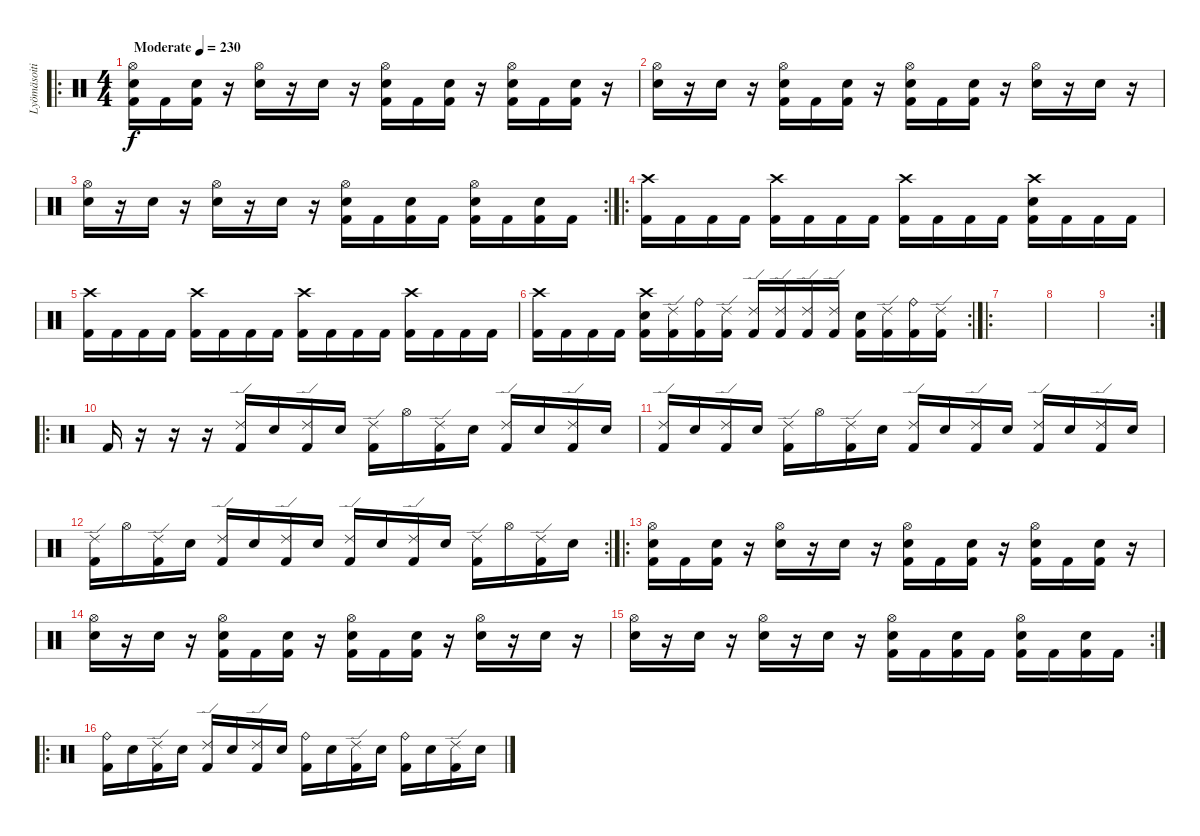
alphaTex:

\track ("Lyömäsoitin" "Lyömäsoiti") {instrument percussion}
\staff {score}
\articulation defaults
\ro
\ts (4 4)
\tempo (230 "Moderate")
\clef neutral
\ks c
("Hi-Hat (open)" "Snare (hit) 2" "Kick (hit) 2").16{dy f} "Kick (hit) 2".16 ("Snare (hit) 2" "Kick (hit) 2").16 r.16 ("Hi-Hat (open)" "Snare (hit) 2").16 r.16 "Snare (hit) 2".16 r.16 ("Hi-Hat (open)" "Snare (hit) 2" "Kick (hit) 2").16 "Kick (hit) 2".16 ("Snare (hit) 2" "Kick (hit) 2").16 r.16 ("Hi-Hat (open)" "Snare (hit) 2" "Kick (hit) 2").16 "Kick (hit) 2".16 ("Snare (hit) 2" "Kick (hit) 2").16 r.16 |
("Hi-Hat (open)" "Snare (hit) 2").16 r.16 "Snare (hit) 2".16 r.16 ("Hi-Hat (open)" "Snare (hit) 2" "Kick (hit) 2").16 "Kick (hit) 2".16 ("Snare (hit) 2" "Kick (hit) 2").16 r.16 ("Hi-Hat (open)" "Snare (hit) 2" "Kick (hit) 2").16 "Kick (hit) 2".16 ("Snare (hit) 2" "Kick (hit) 2").16 r.16 ("Hi-Hat (open)" "Snare (hit) 2").16 r.16 "Snare (hit) 2".16 r.16 |
\rc 2
("Hi-Hat (open)" "Snare (hit) 2").16 r.16 "Snare (hit) 2".16 r.16 ("Hi-Hat (open)" "Snare (hit) 2").16 r.16 "Snare (hit) 2".16 r.16 ("Hi-Hat (open)" "Snare (hit) 2" "Kick (hit) 2").16 "Kick (hit) 2".16 ("Snare (hit) 2" "Kick (hit) 2").16 "Kick (hit) 2".16 ("Hi-Hat (open)" "Snare (hit) 2" "Kick (hit) 2").16 "Kick (hit) 2".16 ("Snare (hit) 2" "Kick (hit) 2").16 "Kick (hit) 2".16 |
\ro
("Crash high (hit)" "Kick (hit) 2").16 "Kick (hit) 2".16 "Kick (hit) 2".16 "Kick (hit) 2".16 ("Crash high (hit)" "Kick (hit) 2").16 "Kick (hit) 2".16 "Kick (hit) 2".16 "Kick (hit) 2".16 ("Crash high (hit)" "Kick (hit) 2").16 "Kick (hit) 2".16 "Kick (hit) 2".16 "Kick (hit) 2".16 ("Crash high (hit)" "Snare (hit) 2" "Kick (hit) 2").16 "Kick (hit) 2".16 "Kick (hit) 2".16 "Kick (hit) 2".16 |
("Crash high (hit)" "Kick (hit) 2").16 "Kick (hit) 2".16 "Kick (hit) 2".16 "Kick (hit) 2".16 ("Crash high (hit)" "Kick (hit) 2").16 "Kick (hit) 2".16 "Kick (hit) 2".16 "Kick (hit) 2".16 ("Crash high (hit)" "Kick (hit) 2").16 "Kick (hit) 2".16 "Kick (hit) 2".16 "Kick (hit) 2".16 ("Crash high (hit)" "Kick (hit) 2").16 "Kick (hit) 2".16 "Kick (hit) 2".16 "Kick (hit) 2".16 |
\rc 2
("Crash high (hit)" "Kick (hit) 2").16 "Kick (hit) 2".16 "Kick (hit) 2".16 "Kick (hit) 2".16 ("Crash high (hit)" "Snare (hit) 2" "Kick (hit) 2").16 ("Ride (edge) 2" "Kick (hit) 2").16 ("Ride (bell)" "Kick (hit) 2").16 ("Ride (edge) 2" "Kick (hit) 2").16 ("Ride (edge) 2" "Kick (hit) 2").16 ("Ride (edge) 2" "Kick (hit) 2").16 ("Ride (edge) 2" "Kick (hit) 2").16 ("Ride (edge) 2" "Kick (hit) 2").16 ("Snare (hit) 2" "Kick (hit) 2").16 ("Ride (edge) 2" "Kick (hit) 2").16 ("Ride (bell)" "Kick (hit) 2").16 ("Ride (edge) 2" "Kick (hit) 2").16 |
\ro
|
|
\rc 2
|
\ro "Kick (hit) 2".16
r.16 r.16 r.16 ("Ride (edge) 2" "Kick (hit) 2").16 "Snare (hit) 2".16 ("Ride (edge) 2" "Kick (hit) 2").16 "Snare (hit) 2".16 ("Ride (edge) 2" "Kick (hit) 2").16 "Hi-Hat (open)".16 ("Ride (edge) 2" "Kick (hit) 2").16 "Snare (hit) 2".16 ("Ride (edge) 2" "Kick (hit) 2").16 "Snare (hit) 2".16 ("Ride (edge) 2" "Kick (hit) 2").16 "Snare (hit) 2".16 |
("Ride (edge) 2" "Kick (hit) 2").16 "Snare (hit) 2".16 ("Ride (edge) 2" "Kick (hit) 2").16 "Snare (hit) 2".16 ("Ride (edge) 2" "Kick (hit) 2").16 "Hi-Hat (open)".16 ("Ride (edge) 2" "Kick (hit) 2").16 "Snare (hit) 2".16 ("Ride (edge) 2" "Kick (hit) 2").16 "Snare (hit) 2".16 ("Ride (edge) 2" "Kick (hit) 2").16 "Snare (hit) 2".16 ("Ride (edge) 2" "Kick (hit) 2").16 "Snare (hit) 2".16 ("Ride (edge) 2" "Kick (hit) 2").16 "Snare (hit) 2".16 |
\rc 2
("Ride (edge) 2" "Kick (hit) 2").16 "Hi-Hat (open)".16 ("Ride (edge) 2" "Kick (hit) 2").16 "Snare (hit) 2".16 ("Ride (edge) 2" "Kick (hit) 2").16 "Snare (hit) 2".16 ("Ride (edge) 2" "Kick (hit) 2").16 "Snare (hit) 2".16 ("Ride (edge) 2" "Kick (hit) 2").16 "Snare (hit) 2".16 ("Ride (edge) 2" "Kick (hit) 2").16 "Snare (hit) 2".16 ("Ride (edge) 2" "Kick (hit) 2").16 "Hi-Hat (open)".16 ("Ride (edge) 2" "Kick (hit) 2").16 "Snare (hit) 2".16 |
\ro
("Hi-Hat (open)" "Snare (hit) 2" "Kick (hit) 2").16 "Kick (hit) 2".16 ("Snare (hit) 2" "Kick (hit) 2").16 r.16 ("Hi-Hat (open)" "Snare (hit) 2").16 r.16 "Snare (hit) 2".16 r.16 ("Hi-Hat (open)" "Snare (hit) 2" "Kick (hit) 2").16 "Kick (hit) 2".16 ("Snare (hit) 2" "Kick (hit) 2").16 r.16 ("Hi-Hat (open)" "Snare (hit) 2" "Kick (hit) 2").16 "Kick (hit) 2".16 ("Snare (hit) 2" "Kick (hit) 2").16 r.16 |
("Hi-Hat (open)" "Snare (hit) 2").16 r.16 "Snare (hit) 2".16 r.16 ("Hi-Hat (open)" "Snare (hit) 2" "Kick (hit) 2").16 "Kick (hit) 2".16 ("Snare (hit) 2" "Kick (hit) 2").16 r.16 ("Hi-Hat (open)" "Snare (hit) 2" "Kick (hit) 2").16 "Kick (hit) 2".16 ("Snare (hit) 2" "Kick (hit) 2").16 r.16 ("Hi-Hat (open)" "Snare (hit) 2").16 r.16 "Snare (hit) 2".16 r.16 |
\rc 2
("Hi-Hat (open)" "Snare (hit) 2").16 r.16 "Snare (hit) 2".16 r.16 ("Hi-Hat (open)" "Snare (hit) 2").16 r.16 "Snare (hit) 2".16 r.16 ("Hi-Hat (open)" "Snare (hit) 2" "Kick (hit) 2").16 "Kick (hit) 2".16 ("Snare (hit) 2" "Kick (hit) 2").16 "Kick (hit) 2".16 ("Hi-Hat (open)" "Snare (hit) 2" "Kick (hit) 2").16 "Kick (hit) 2".16 ("Snare (hit) 2" "Kick (hit) 2").16 "Kick (hit) 2".16 |
\ro
("Ride (bell)" "Kick (hit) 2").16 "Snare (hit) 2".16 ("Ride (edge) 2" "Kick (hit) 2").16 "Snare (hit) 2".16 ("Ride (edge) 2" "Kick (hit) 2").16 "Snare (hit) 2".16 ("Ride (edge) 2" "Kick (hit) 2").16 "Snare (hit) 2".16 ("Ride (bell)" "Kick (hit) 2").16 "Snare (hit) 2".16 ("Ride (edge) 2" "Kick (hit) 2").16 "Snare (hit) 2".16 ("Ride (bell)" "Kick (hit) 2").16 "Snare (hit) 2".16 ("Ride (edge) 2" "Kick (hit) 2").16 "Snare (hit) 2".16
